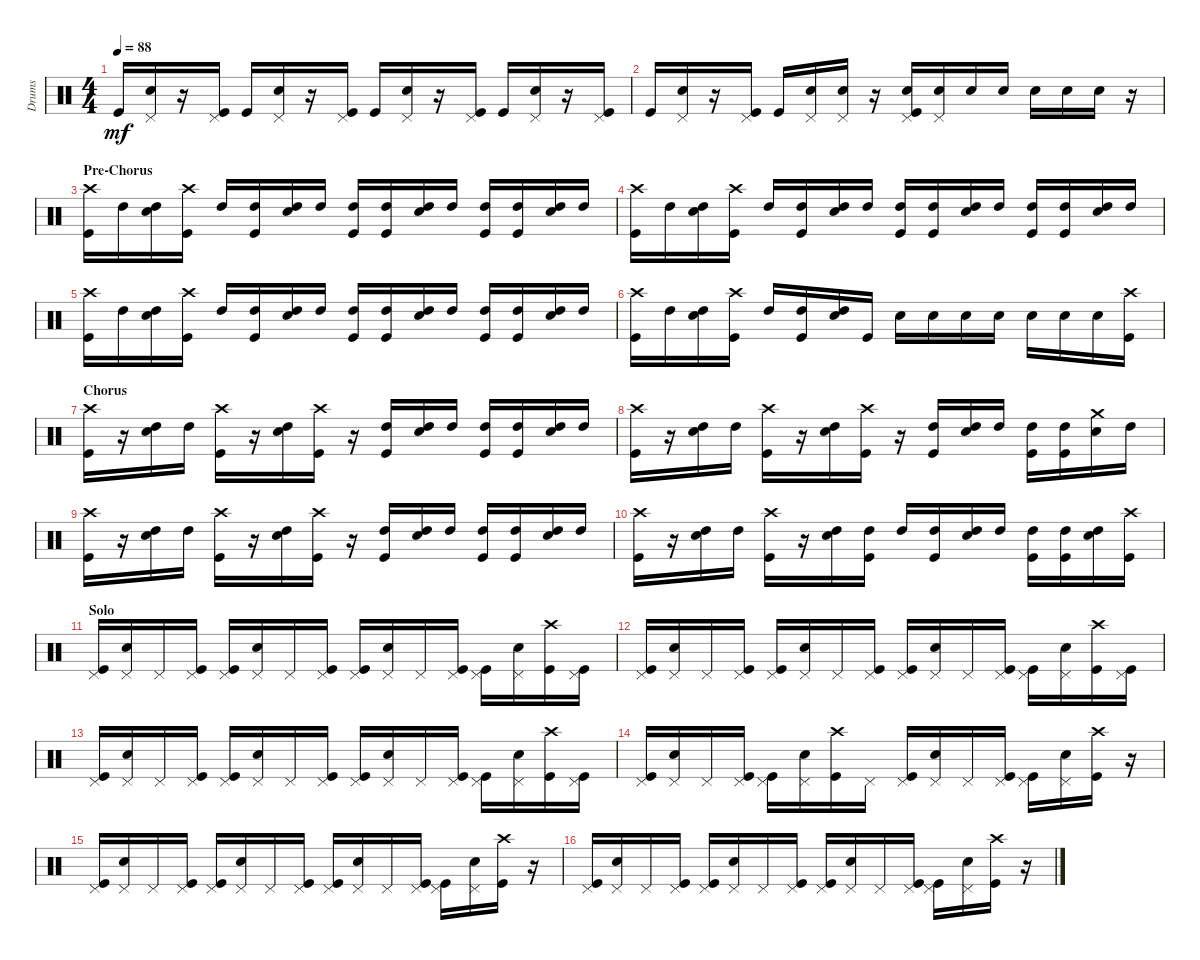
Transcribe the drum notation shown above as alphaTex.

\track ("Drums" "Drums") {instrument percussion}
\staff {score}
\articulation defaults
\ts (4 4)
\tempo 88
\clef neutral
\ks c "Kick (hit)".16{dy mf}
("Snare (hit) 2" "Pedal Hi-Hat (hit)").16 r.16 ("Kick (hit)" "Pedal Hi-Hat (hit)").16 "Kick (hit)".16 ("Snare (hit) 2" "Pedal Hi-Hat (hit)").16 r.16 ("Pedal Hi-Hat (hit)" "Kick (hit)").16 "Kick (hit)".16 ("Snare (hit) 2" "Pedal Hi-Hat (hit)").16 r.16 ("Kick (hit)" "Pedal Hi-Hat (hit)").16 "Kick (hit)".16 ("Snare (hit) 2" "Pedal Hi-Hat (hit)").16 r.16 ("Kick (hit)" "Pedal Hi-Hat (hit)").16 |
"Kick (hit)".16 ("Snare (hit) 2" "Pedal Hi-Hat (hit)").16 r.16 ("Kick (hit)" "Pedal Hi-Hat (hit)").16 "Kick (hit)".16 ("Snare (hit) 2" "Pedal Hi-Hat (hit)").16 ("Snare (hit) 2" "Pedal Hi-Hat (hit)").16 r.16 ("Kick (hit)" "Snare (hit) 2" "Pedal Hi-Hat (hit)").16 ("Snare (hit) 2" "Pedal Hi-Hat (hit)").16 "Snare (hit) 2".16 "Snare (hit) 2".16 "Snare (hit) 2".16 "Snare (hit) 2".16 "Snare (hit) 2".16 r.16 |
\section ("" "Pre-Chorus")
("Kick (hit)" "Crash high (hit)").16 "High Tom (hit)".16 ("High Tom (hit)" "Snare (hit) 2").16 ("Kick (hit)" "Crash high (hit)").16 "High Tom (hit)".16 ("High Tom (hit)" "Kick (hit)").16 ("High Tom (hit)" "Snare (hit) 2").16 "High Tom (hit)".16 ("Kick (hit)" "High Tom (hit)").16 ("High Tom (hit)" "Kick (hit)").16 ("High Tom (hit)" "Snare (hit) 2").16 "High Tom (hit)".16 ("Kick (hit)" "High Tom (hit)").16 ("High Tom (hit)" "Kick (hit)").16 ("High Tom (hit)" "Snare (hit) 2").16 "High Tom (hit)".16 |
("Kick (hit)" "Crash high (hit)").16 "High Tom (hit)".16 ("High Tom (hit)" "Snare (hit) 2").16 ("Kick (hit)" "Crash high (hit)").16 "High Tom (hit)".16 ("High Tom (hit)" "Kick (hit)").16 ("High Tom (hit)" "Snare (hit) 2").16 "High Tom (hit)".16 ("Kick (hit)" "High Tom (hit)").16 ("High Tom (hit)" "Kick (hit)").16 ("High Tom (hit)" "Snare (hit) 2").16 "High Tom (hit)".16 ("Kick (hit)" "High Tom (hit)").16 ("High Tom (hit)" "Kick (hit)").16 ("High Tom (hit)" "Snare (hit) 2").16 "High Tom (hit)".16 |
("Kick (hit)" "Crash high (hit)").16 "High Tom (hit)".16 ("High Tom (hit)" "Snare (hit) 2").16 ("Kick (hit)" "Crash high (hit)").16 "High Tom (hit)".16 ("High Tom (hit)" "Kick (hit)").16 ("High Tom (hit)" "Snare (hit) 2").16 "High Tom (hit)".16 ("Kick (hit)" "High Tom (hit)").16 ("High Tom (hit)" "Kick (hit)").16 ("High Tom (hit)" "Snare (hit) 2").16 "High Tom (hit)".16 ("Kick (hit)" "High Tom (hit)").16 ("High Tom (hit)" "Kick (hit)").16 ("High Tom (hit)" "Snare (hit) 2").16 "High Tom (hit)".16 |
("Kick (hit)" "Crash high (hit)").16 "High Tom (hit)".16 ("High Tom (hit)" "Snare (hit) 2").16 ("Kick (hit)" "Crash high (hit)").16 "High Tom (hit)".16 ("High Tom (hit)" "Kick (hit)").16 ("High Tom (hit)" "Snare (hit) 2").16 "Kick (hit)".16 "Snare (hit) 2".16 "Snare (hit) 2".16 "Snare (hit) 2".16 "Snare (hit) 2".16 "Snare (hit) 2".16 "Snare (hit) 2".16 "Snare (hit) 2".16 ("Kick (hit)" "Crash high (hit)").16 |
\section ("" "Chorus")
("Kick (hit)" "Crash high (hit)").16 r.16 ("Snare (hit) 2" "High Tom (hit)").16 "High Tom (hit)".16 ("Kick (hit)" "Crash high (hit)").16 r.16 ("Snare (hit) 2" "High Tom (hit)").16 ("Kick (hit)" "Crash high (hit)").16 r.16 ("Kick (hit)" "High Tom (hit)").16 ("Snare (hit) 2" "High Tom (hit)").16 "High Tom (hit)".16 ("Kick (hit)" "High Tom (hit)").16 ("Kick (hit)" "High Tom (hit)").16 ("Snare (hit) 2" "High Tom (hit)").16 "High Tom (hit)".16 |
("Kick (hit)" "Crash high (hit)").16 r.16 ("Snare (hit) 2" "High Tom (hit)").16 "High Tom (hit)".16 ("Kick (hit)" "Crash high (hit)").16 r.16 ("Snare (hit) 2" "High Tom (hit)").16 ("Kick (hit)" "Crash high (hit)").16 r.16 ("Kick (hit)" "High Tom (hit)").16 ("Snare (hit) 2" "High Tom (hit)").16 "High Tom (hit)".16 ("Kick (hit)" "High Tom (hit)").16 ("Kick (hit)" "High Tom (hit)").16 ("Snare (hit) 2" "Crash medium (hit)").16 "High Tom (hit)".16 |
("Kick (hit)" "Crash high (hit)").16 r.16 ("Snare (hit) 2" "High Tom (hit)").16 "High Tom (hit)".16 ("Kick (hit)" "Crash high (hit)").16 r.16 ("Snare (hit) 2" "High Tom (hit)").16 ("Kick (hit)" "Crash high (hit)").16 r.16 ("Kick (hit)" "High Tom (hit)").16 ("Snare (hit) 2" "High Tom (hit)").16 "High Tom (hit)".16 ("Kick (hit)" "High Tom (hit)").16 ("Kick (hit)" "High Tom (hit)").16 ("Snare (hit) 2" "High Tom (hit)").16 "High Tom (hit)".16 |
("Kick (hit)" "Crash high (hit)").16 r.16 ("Snare (hit) 2" "High Tom (hit)").16 "High Tom (hit)".16 ("Kick (hit)" "Crash high (hit)").16 r.16 ("Snare (hit) 2" "High Tom (hit)").16 ("Kick (hit)" "High Tom (hit)").16 "High Tom (hit)".16 ("Kick (hit)" "High Tom (hit)").16 ("Snare (hit) 2" "High Tom (hit)").16 "High Tom (hit)".16 ("Kick (hit)" "High Tom (hit)").16 ("Kick (hit)" "High Tom (hit)").16 ("Snare (hit) 2" "High Tom (hit)").16 ("Kick (hit)" "Crash high (hit)").16 |
\section ("" "Solo")
("Kick (hit)" "Pedal Hi-Hat (hit)").16 ("Snare (hit) 2" "Pedal Hi-Hat (hit)").16 "Pedal Hi-Hat (hit)".16 ("Kick (hit)" "Pedal Hi-Hat (hit)").16 ("Kick (hit)" "Pedal Hi-Hat (hit)").16 ("Snare (hit) 2" "Pedal Hi-Hat (hit)").16 "Pedal Hi-Hat (hit)".16 ("Kick (hit)" "Pedal Hi-Hat (hit)").16 ("Kick (hit)" "Pedal Hi-Hat (hit)").16 ("Snare (hit) 2" "Pedal Hi-Hat (hit)").16 "Pedal Hi-Hat (hit)".16 ("Kick (hit)" "Pedal Hi-Hat (hit)").16 ("Kick (hit)" "Pedal Hi-Hat (hit)").16 ("Snare (hit) 2" "Pedal Hi-Hat (hit)").16 ("Kick (hit)" "Crash high (hit)").16 ("Pedal Hi-Hat (hit)" "Kick (hit)").16 |
("Kick (hit)" "Pedal Hi-Hat (hit)").16 ("Snare (hit) 2" "Pedal Hi-Hat (hit)").16 "Pedal Hi-Hat (hit)".16 ("Kick (hit)" "Pedal Hi-Hat (hit)").16 ("Kick (hit)" "Pedal Hi-Hat (hit)").16 ("Snare (hit) 2" "Pedal Hi-Hat (hit)").16 "Pedal Hi-Hat (hit)".16 ("Kick (hit)" "Pedal Hi-Hat (hit)").16 ("Kick (hit)" "Pedal Hi-Hat (hit)").16 ("Snare (hit) 2" "Pedal Hi-Hat (hit)").16 "Pedal Hi-Hat (hit)".16 ("Kick (hit)" "Pedal Hi-Hat (hit)").16 ("Kick (hit)" "Pedal Hi-Hat (hit)").16 ("Snare (hit) 2" "Pedal Hi-Hat (hit)").16 ("Kick (hit)" "Crash high (hit)").16 ("Pedal Hi-Hat (hit)" "Kick (hit)").16 |
("Kick (hit)" "Pedal Hi-Hat (hit)").16 ("Snare (hit) 2" "Pedal Hi-Hat (hit)").16 "Pedal Hi-Hat (hit)".16 ("Kick (hit)" "Pedal Hi-Hat (hit)").16 ("Kick (hit)" "Pedal Hi-Hat (hit)").16 ("Snare (hit) 2" "Pedal Hi-Hat (hit)").16 "Pedal Hi-Hat (hit)".16 ("Kick (hit)" "Pedal Hi-Hat (hit)").16 ("Kick (hit)" "Pedal Hi-Hat (hit)").16 ("Snare (hit) 2" "Pedal Hi-Hat (hit)").16 "Pedal Hi-Hat (hit)".16 ("Kick (hit)" "Pedal Hi-Hat (hit)").16 ("Kick (hit)" "Pedal Hi-Hat (hit)").16 ("Snare (hit) 2" "Pedal Hi-Hat (hit)").16 ("Kick (hit)" "Crash high (hit)").16 ("Pedal Hi-Hat (hit)" "Kick (hit)").16 |
("Kick (hit)" "Pedal Hi-Hat (hit)").16 ("Snare (hit) 2" "Pedal Hi-Hat (hit)").16 "Pedal Hi-Hat (hit)".16 ("Kick (hit)" "Pedal Hi-Hat (hit)").16 ("Kick (hit)" "Pedal Hi-Hat (hit)").16 ("Snare (hit) 2" "Pedal Hi-Hat (hit)").16 ("Kick (hit)" "Crash high (hit)").16 "Pedal Hi-Hat (hit)".16 ("Kick (hit)" "Pedal Hi-Hat (hit)").16 ("Snare (hit) 2" "Pedal Hi-Hat (hit)").16 "Pedal Hi-Hat (hit)".16 ("Kick (hit)" "Pedal Hi-Hat (hit)").16 ("Kick (hit)" "Pedal Hi-Hat (hit)").16 ("Snare (hit) 2" "Pedal Hi-Hat (hit)").16 ("Kick (hit)" "Crash high (hit)").16 r.16 |
("Kick (hit)" "Pedal Hi-Hat (hit)").16 ("Snare (hit) 2" "Pedal Hi-Hat (hit)").16 "Pedal Hi-Hat (hit)".16 ("Kick (hit)" "Pedal Hi-Hat (hit)").16 ("Kick (hit)" "Pedal Hi-Hat (hit)").16 ("Snare (hit) 2" "Pedal Hi-Hat (hit)").16 "Pedal Hi-Hat (hit)".16 ("Kick (hit)" "Pedal Hi-Hat (hit)").16 ("Kick (hit)" "Pedal Hi-Hat (hit)").16 ("Snare (hit) 2" "Pedal Hi-Hat (hit)").16 "Pedal Hi-Hat (hit)".16 ("Kick (hit)" "Pedal Hi-Hat (hit)").16 ("Kick (hit)" "Pedal Hi-Hat (hit)").16 ("Snare (hit) 2" "Pedal Hi-Hat (hit)").16 ("Kick (hit)" "Crash high (hit)").16 r.16 |
("Kick (hit)" "Pedal Hi-Hat (hit)").16 ("Snare (hit) 2" "Pedal Hi-Hat (hit)").16 "Pedal Hi-Hat (hit)".16 ("Kick (hit)" "Pedal Hi-Hat (hit)").16 ("Kick (hit)" "Pedal Hi-Hat (hit)").16 ("Snare (hit) 2" "Pedal Hi-Hat (hit)").16 "Pedal Hi-Hat (hit)".16 ("Kick (hit)" "Pedal Hi-Hat (hit)").16 ("Kick (hit)" "Pedal Hi-Hat (hit)").16 ("Snare (hit) 2" "Pedal Hi-Hat (hit)").16 "Pedal Hi-Hat (hit)".16 ("Kick (hit)" "Pedal Hi-Hat (hit)").16 ("Kick (hit)" "Pedal Hi-Hat (hit)").16 ("Snare (hit) 2" "Pedal Hi-Hat (hit)").16 ("Kick (hit)" "Crash high (hit)").16 r.16
